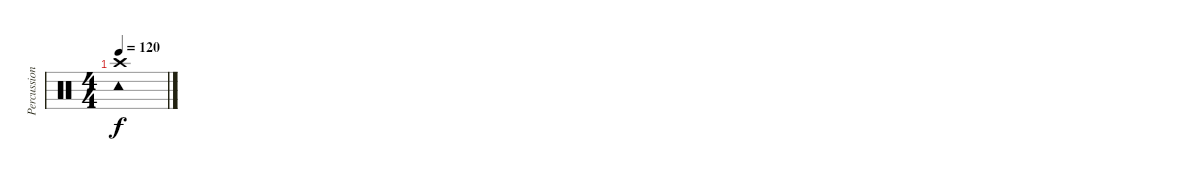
\track ("Percussion" "Percussion") {instrument percussion}
\staff {score}
\articulation defaults
\ts (4 4)
\tempo 120
\clef neutral
\ks c
("Crash high (hit)" "Tambourine (hit)").1{dy f}
